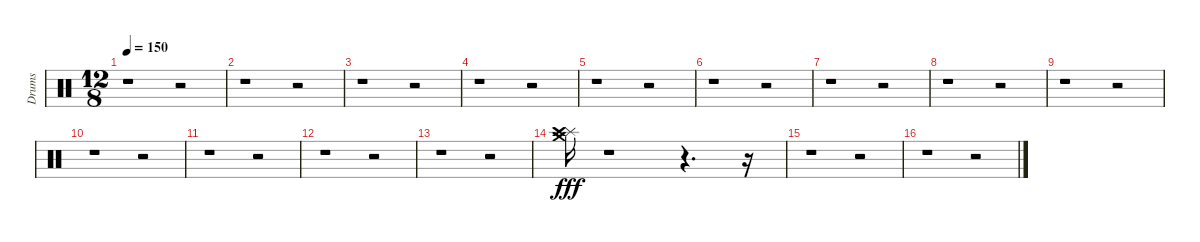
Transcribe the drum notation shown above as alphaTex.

\track ("Drums" "Drums") {instrument percussion}
\staff {score}
\articulation defaults
\ts (12 8)
\tempo 150
\clef neutral
\ks c
r.1{dy fff} r.2 |
r.1 r.2 |
r.1 r.2 |
r.1 r.2 |
r.1 r.2 |
r.1 r.2 |
r.1 r.2 |
r.1 r.2 |
r.1 r.2 |
r.1 r.2 |
r.1 r.2 |
r.1 r.2 |
r.1 r.2 |
("Splash (hit)" "Crash high (hit)" "Crash medium (hit)").16 r.1 r.4{d} r.16 |
r.1 r.2 |
r.1 r.2
